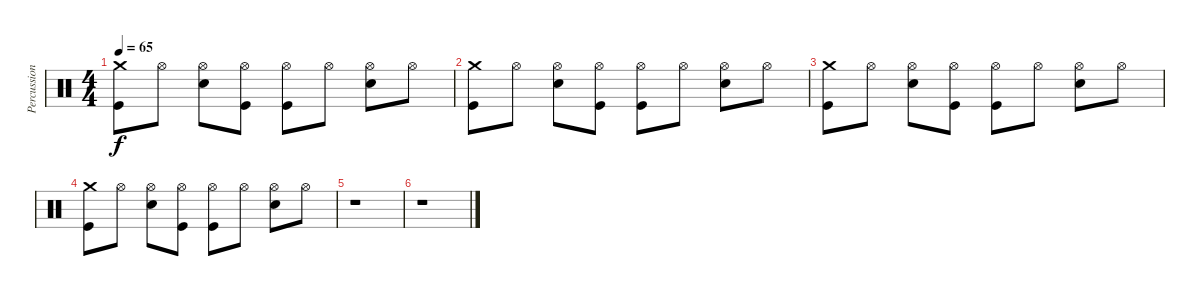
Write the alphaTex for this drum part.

\track ("Percussions" "Percussion") {instrument percussion}
\staff {score}
\articulation defaults
\ts (4 4)
\tempo 65
\clef neutral
\ks c
("Crash medium (hit)" "Kick (hit)").8{dy f} "Hi-Hat (open)".8 ("Hi-Hat (open)" "Electric Snare (hit)").8 ("Hi-Hat (open)" "Kick (hit)").8 ("Hi-Hat (open)" "Kick (hit)").8 "Hi-Hat (open)".8 ("Hi-Hat (open)" "Electric Snare (hit)").8 "Hi-Hat (open)".8 |
("Crash medium (hit)" "Kick (hit)").8 "Hi-Hat (open)".8 ("Hi-Hat (open)" "Electric Snare (hit)").8 ("Hi-Hat (open)" "Kick (hit)").8 ("Hi-Hat (open)" "Kick (hit)").8 "Hi-Hat (open)".8 ("Hi-Hat (open)" "Electric Snare (hit)").8 "Hi-Hat (open)".8 |
("Crash medium (hit)" "Kick (hit)").8 "Hi-Hat (open)".8 ("Hi-Hat (open)" "Electric Snare (hit)").8 ("Hi-Hat (open)" "Kick (hit)").8 ("Hi-Hat (open)" "Kick (hit)").8 "Hi-Hat (open)".8 ("Hi-Hat (open)" "Electric Snare (hit)").8 "Hi-Hat (open)".8 |
("Crash medium (hit)" "Kick (hit)").8 "Hi-Hat (open)".8 ("Hi-Hat (open)" "Electric Snare (hit)").8 ("Hi-Hat (open)" "Kick (hit)").8 ("Hi-Hat (open)" "Kick (hit)").8 "Hi-Hat (open)".8 ("Hi-Hat (open)" "Electric Snare (hit)").8 "Hi-Hat (open)".8 |
r.1 |
r.1
